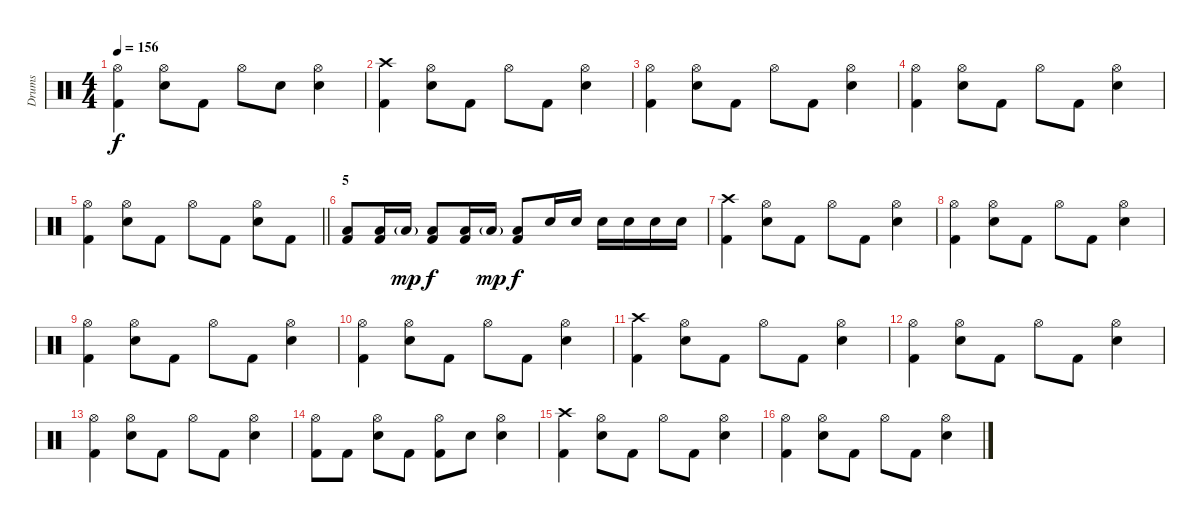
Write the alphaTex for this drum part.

\track ("Drums" "Drums") {instrument percussion}
\staff {score}
\articulation defaults
\ts (4 4)
\tempo 156
\clef neutral
\ks c
("Hi-Hat (open)" "Kick (hit) 2").4{dy f} ("Hi-Hat (open)" "Snare (hit) 2").8 "Kick (hit) 2".8 "Hi-Hat (open)".8 "Snare (hit) 2".8 ("Hi-Hat (open)" "Snare (hit) 2").4 |
("Crash high (hit)" "Kick (hit) 2").4 ("Hi-Hat (open)" "Snare (hit) 2").8 "Kick (hit) 2".8 "Hi-Hat (open)".8 "Kick (hit) 2".8 ("Hi-Hat (open)" "Snare (hit) 2").4 |
("Hi-Hat (open)" "Kick (hit) 2").4 ("Hi-Hat (open)" "Snare (hit) 2").8 "Kick (hit) 2".8 "Hi-Hat (open)".8 "Kick (hit) 2".8 ("Hi-Hat (open)" "Snare (hit) 2").4 |
("Hi-Hat (open)" "Kick (hit) 2").4 ("Hi-Hat (open)" "Snare (hit) 2").8 "Kick (hit) 2".8 "Hi-Hat (open)".8 "Kick (hit) 2".8 ("Hi-Hat (open)" "Snare (hit) 2").4 |
\barLineRight lightlight
("Hi-Hat (open)" "Kick (hit) 2").4 ("Hi-Hat (open)" "Snare (hit) 2").8 "Kick (hit) 2".8 "Hi-Hat (open)".8 "Kick (hit) 2".8 ("Hi-Hat (open)" "Snare (hit) 2").8 "Kick (hit) 2".8 |
\section ("" "5")
("Low Tom (hit)" "Kick (hit) 2").8 ("Low Tom (hit)" "Kick (hit) 2").16 "Low Tom (hit)"{g}.16{dy mp} ("Low Tom (hit)" "Kick (hit) 2").8{dy f} ("Low Tom (hit)" "Kick (hit) 2").16 "Low Tom (hit)"{g}.16{dy mp} ("Low Tom (hit)" "Kick (hit) 2").8{dy f} "Snare (hit) 2".16 "Snare (hit) 2".16 "Snare (hit) 2".16 "Snare (hit) 2".16 "Snare (hit) 2".16 "Snare (hit) 2".16 |
("Crash high (hit)" "Kick (hit) 2").4 ("Hi-Hat (open)" "Snare (hit) 2").8 "Kick (hit) 2".8 "Hi-Hat (open)".8 "Kick (hit) 2".8 ("Hi-Hat (open)" "Snare (hit) 2").4 |
("Hi-Hat (open)" "Kick (hit) 2").4 ("Hi-Hat (open)" "Snare (hit) 2").8 "Kick (hit) 2".8 "Hi-Hat (open)".8 "Kick (hit) 2".8 ("Hi-Hat (open)" "Snare (hit) 2").4 |
("Hi-Hat (open)" "Kick (hit) 2").4 ("Hi-Hat (open)" "Snare (hit) 2").8 "Kick (hit) 2".8 "Hi-Hat (open)".8 "Kick (hit) 2".8 ("Hi-Hat (open)" "Snare (hit) 2").4 |
("Hi-Hat (open)" "Kick (hit) 2").4 ("Hi-Hat (open)" "Snare (hit) 2").8 "Kick (hit) 2".8 "Hi-Hat (open)".8 "Kick (hit) 2".8 ("Hi-Hat (open)" "Snare (hit) 2").4 |
("Crash high (hit)" "Kick (hit) 2").4 ("Hi-Hat (open)" "Snare (hit) 2").8 "Kick (hit) 2".8 "Hi-Hat (open)".8 "Kick (hit) 2".8 ("Hi-Hat (open)" "Snare (hit) 2").4 |
("Hi-Hat (open)" "Kick (hit) 2").4 ("Hi-Hat (open)" "Snare (hit) 2").8 "Kick (hit) 2".8 "Hi-Hat (open)".8 "Kick (hit) 2".8 ("Hi-Hat (open)" "Snare (hit) 2").4 |
("Hi-Hat (open)" "Kick (hit) 2").4 ("Hi-Hat (open)" "Snare (hit) 2").8 "Kick (hit) 2".8 "Hi-Hat (open)".8 "Kick (hit) 2".8 ("Hi-Hat (open)" "Snare (hit) 2").4 |
("Hi-Hat (open)" "Kick (hit) 2").8 "Kick (hit) 2".8 ("Hi-Hat (open)" "Snare (hit) 2").8 "Kick (hit) 2".8 ("Hi-Hat (open)" "Kick (hit) 2").8 "Snare (hit) 2".8 ("Hi-Hat (open)" "Snare (hit) 2").4 |
("Crash high (hit)" "Kick (hit) 2").4 ("Hi-Hat (open)" "Snare (hit) 2").8 "Kick (hit) 2".8 "Hi-Hat (open)".8 "Kick (hit) 2".8 ("Hi-Hat (open)" "Snare (hit) 2").4 |
("Hi-Hat (open)" "Kick (hit) 2").4 ("Hi-Hat (open)" "Snare (hit) 2").8 "Kick (hit) 2".8 "Hi-Hat (open)".8 "Kick (hit) 2".8 ("Hi-Hat (open)" "Snare (hit) 2").4
